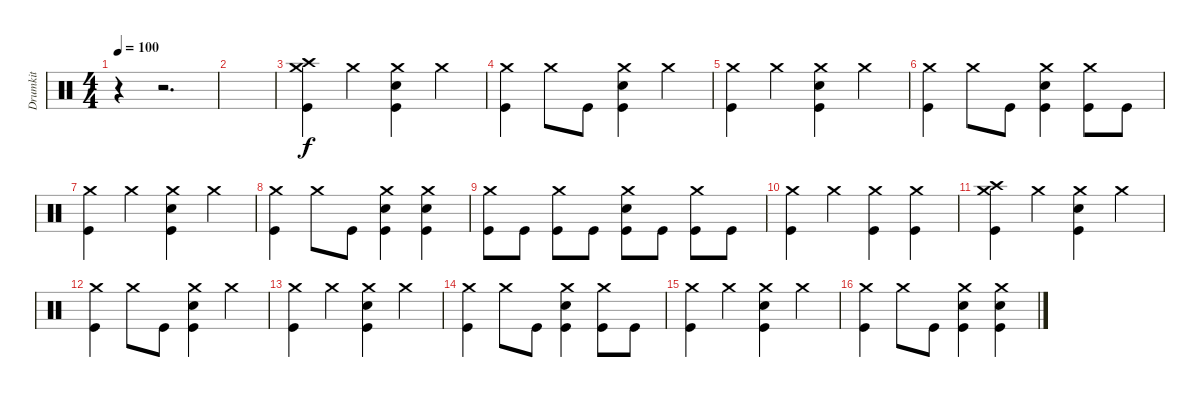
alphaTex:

\track ("Drumkit" "Drumkit") {instrument percussion}
\staff {score}
\articulation defaults
\ts (4 4)
\tempo 100
\clef neutral
\ks c
r.4{dy f} r.2{d} |
|
("Crash medium (hit)" "Crash high (hit)" "Kick (hit)").4 "Crash medium (hit)".4 ("Crash medium (hit)" "Snare (hit) 2" "Kick (hit)").4 "Crash medium (hit)".4 |
("Crash medium (hit)" "Kick (hit)").4 "Crash medium (hit)".8 "Kick (hit)".8 ("Crash medium (hit)" "Snare (hit) 2" "Kick (hit)").4 "Crash medium (hit)".4 |
("Crash medium (hit)" "Kick (hit)").4 "Crash medium (hit)".4 ("Crash medium (hit)" "Snare (hit) 2" "Kick (hit)").4 "Crash medium (hit)".4 |
("Crash medium (hit)" "Kick (hit)").4 "Crash medium (hit)".8 "Kick (hit)".8 ("Crash medium (hit)" "Snare (hit) 2" "Kick (hit)").4 ("Crash medium (hit)" "Kick (hit)").8 "Kick (hit)".8 |
("Crash medium (hit)" "Kick (hit)").4 "Crash medium (hit)".4 ("Crash medium (hit)" "Snare (hit) 2" "Kick (hit)").4 "Crash medium (hit)".4 |
("Crash medium (hit)" "Kick (hit)").4 "Crash medium (hit)".8 "Kick (hit)".8 ("Crash medium (hit)" "Snare (hit) 2" "Kick (hit)").4 ("Crash medium (hit)" "Snare (hit) 2" "Kick (hit)").4 |
("Crash medium (hit)" "Kick (hit)").8 "Kick (hit)".8 ("Crash medium (hit)" "Kick (hit)").8 "Kick (hit)".8 ("Crash medium (hit)" "Snare (hit) 2" "Kick (hit)").8 "Kick (hit)".8 ("Crash medium (hit)" "Kick (hit)").8 "Kick (hit)".8 |
("Crash medium (hit)" "Kick (hit)").4 "Crash medium (hit)".4 ("Crash medium (hit)" "Kick (hit)").4 ("Crash medium (hit)" "Kick (hit)").4 |
("Crash medium (hit)" "Crash high (hit)" "Kick (hit)").4 "Crash medium (hit)".4 ("Crash medium (hit)" "Snare (hit) 2" "Kick (hit)").4 "Crash medium (hit)".4 |
("Crash medium (hit)" "Kick (hit)").4 "Crash medium (hit)".8 "Kick (hit)".8 ("Crash medium (hit)" "Snare (hit) 2" "Kick (hit)").4 "Crash medium (hit)".4 |
("Crash medium (hit)" "Kick (hit)").4 "Crash medium (hit)".4 ("Crash medium (hit)" "Snare (hit) 2" "Kick (hit)").4 "Crash medium (hit)".4 |
("Crash medium (hit)" "Kick (hit)").4 "Crash medium (hit)".8 "Kick (hit)".8 ("Crash medium (hit)" "Snare (hit) 2" "Kick (hit)").4 ("Crash medium (hit)" "Kick (hit)").8 "Kick (hit)".8 |
("Crash medium (hit)" "Kick (hit)").4 "Crash medium (hit)".4 ("Crash medium (hit)" "Snare (hit) 2" "Kick (hit)").4 "Crash medium (hit)".4 |
("Crash medium (hit)" "Kick (hit)").4 "Crash medium (hit)".8 "Kick (hit)".8 ("Crash medium (hit)" "Snare (hit) 2" "Kick (hit)").4 ("Crash medium (hit)" "Snare (hit) 2" "Kick (hit)").4
